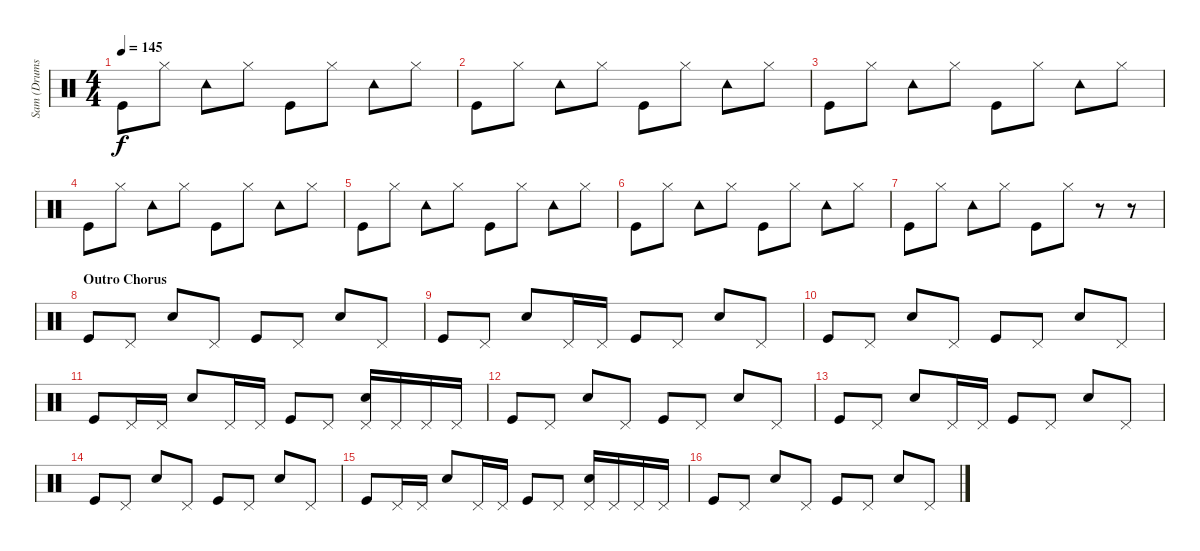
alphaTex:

\track ("Sam (Drums)" "Sam (Drums") {instrument percussion}
\staff {score}
\articulation defaults
\ts (4 4)
\tempo 145
\clef neutral
\ks c "Kick (hit)".8{dy f} "Hi-Hat (closed)".8 "Tambourine (hit)".8 "Hi-Hat (closed)".8 "Kick (hit)".8 "Hi-Hat (closed)".8 "Tambourine (hit)".8 "Hi-Hat (closed)".8
|
"Kick (hit)".8 "Hi-Hat (closed)".8 "Tambourine (hit)".8 "Hi-Hat (closed)".8 "Kick (hit)".8 "Hi-Hat (closed)".8 "Tambourine (hit)".8 "Hi-Hat (closed)".8 |
"Kick (hit)".8 "Hi-Hat (closed)".8 "Tambourine (hit)".8 "Hi-Hat (closed)".8 "Kick (hit)".8 "Hi-Hat (closed)".8 "Tambourine (hit)".8 "Hi-Hat (closed)".8 |
"Kick (hit)".8 "Hi-Hat (closed)".8 "Tambourine (hit)".8 "Hi-Hat (closed)".8 "Kick (hit)".8 "Hi-Hat (closed)".8 "Tambourine (hit)".8 "Hi-Hat (closed)".8 |
"Kick (hit)".8 "Hi-Hat (closed)".8 "Tambourine (hit)".8 "Hi-Hat (closed)".8 "Kick (hit)".8 "Hi-Hat (closed)".8 "Tambourine (hit)".8 "Hi-Hat (closed)".8 |
"Kick (hit)".8 "Hi-Hat (closed)".8 "Tambourine (hit)".8 "Hi-Hat (closed)".8 "Kick (hit)".8 "Hi-Hat (closed)".8 "Tambourine (hit)".8 "Hi-Hat (closed)".8 |
"Kick (hit)".8 "Hi-Hat (closed)".8 "Tambourine (hit)".8 "Hi-Hat (closed)".8 "Kick (hit)".8 "Hi-Hat (closed)".8 r.8 r.8 |
\section ("" "Outro Chorus")
"Kick (hit)".8 "Pedal Hi-Hat (hit)".8 "Snare (hit) 2".8 "Pedal Hi-Hat (hit)".8 "Kick (hit)".8 "Pedal Hi-Hat (hit)".8 "Snare (hit) 2".8 "Pedal Hi-Hat (hit)".8 |
"Kick (hit)".8 "Pedal Hi-Hat (hit)".8 "Snare (hit) 2".8 "Pedal Hi-Hat (hit)".16 "Pedal Hi-Hat (hit)".16 "Kick (hit)".8 "Pedal Hi-Hat (hit)".8 "Snare (hit) 2".8 "Pedal Hi-Hat (hit)".8 |
"Kick (hit)".8 "Pedal Hi-Hat (hit)".8 "Snare (hit) 2".8 "Pedal Hi-Hat (hit)".8 "Kick (hit)".8 "Pedal Hi-Hat (hit)".8 "Snare (hit) 2".8 "Pedal Hi-Hat (hit)".8 |
"Kick (hit)".8 "Pedal Hi-Hat (hit)".16 "Pedal Hi-Hat (hit)".16 "Snare (hit) 2".8 "Pedal Hi-Hat (hit)".16 "Pedal Hi-Hat (hit)".16 "Kick (hit)".8 "Pedal Hi-Hat (hit)".8 ("Pedal Hi-Hat (hit)" "Snare (hit) 2").16 "Pedal Hi-Hat (hit)".16 "Pedal Hi-Hat (hit)".16 "Pedal Hi-Hat (hit)".16 |
"Kick (hit)".8 "Pedal Hi-Hat (hit)".8 "Snare (hit) 2".8 "Pedal Hi-Hat (hit)".8 "Kick (hit)".8 "Pedal Hi-Hat (hit)".8 "Snare (hit) 2".8 "Pedal Hi-Hat (hit)".8 |
"Kick (hit)".8 "Pedal Hi-Hat (hit)".8 "Snare (hit) 2".8 "Pedal Hi-Hat (hit)".16 "Pedal Hi-Hat (hit)".16 "Kick (hit)".8 "Pedal Hi-Hat (hit)".8 "Snare (hit) 2".8 "Pedal Hi-Hat (hit)".8 |
"Kick (hit)".8 "Pedal Hi-Hat (hit)".8 "Snare (hit) 2".8 "Pedal Hi-Hat (hit)".8 "Kick (hit)".8 "Pedal Hi-Hat (hit)".8 "Snare (hit) 2".8 "Pedal Hi-Hat (hit)".8 |
"Kick (hit)".8 "Pedal Hi-Hat (hit)".16 "Pedal Hi-Hat (hit)".16 "Snare (hit) 2".8 "Pedal Hi-Hat (hit)".16 "Pedal Hi-Hat (hit)".16 "Kick (hit)".8 "Pedal Hi-Hat (hit)".8 ("Pedal Hi-Hat (hit)" "Snare (hit) 2").16 "Pedal Hi-Hat (hit)".16 "Pedal Hi-Hat (hit)".16 "Pedal Hi-Hat (hit)".16 |
"Kick (hit)".8 "Pedal Hi-Hat (hit)".8 "Snare (hit) 2".8 "Pedal Hi-Hat (hit)".8 "Kick (hit)".8 "Pedal Hi-Hat (hit)".8 "Snare (hit) 2".8 "Pedal Hi-Hat (hit)".8
